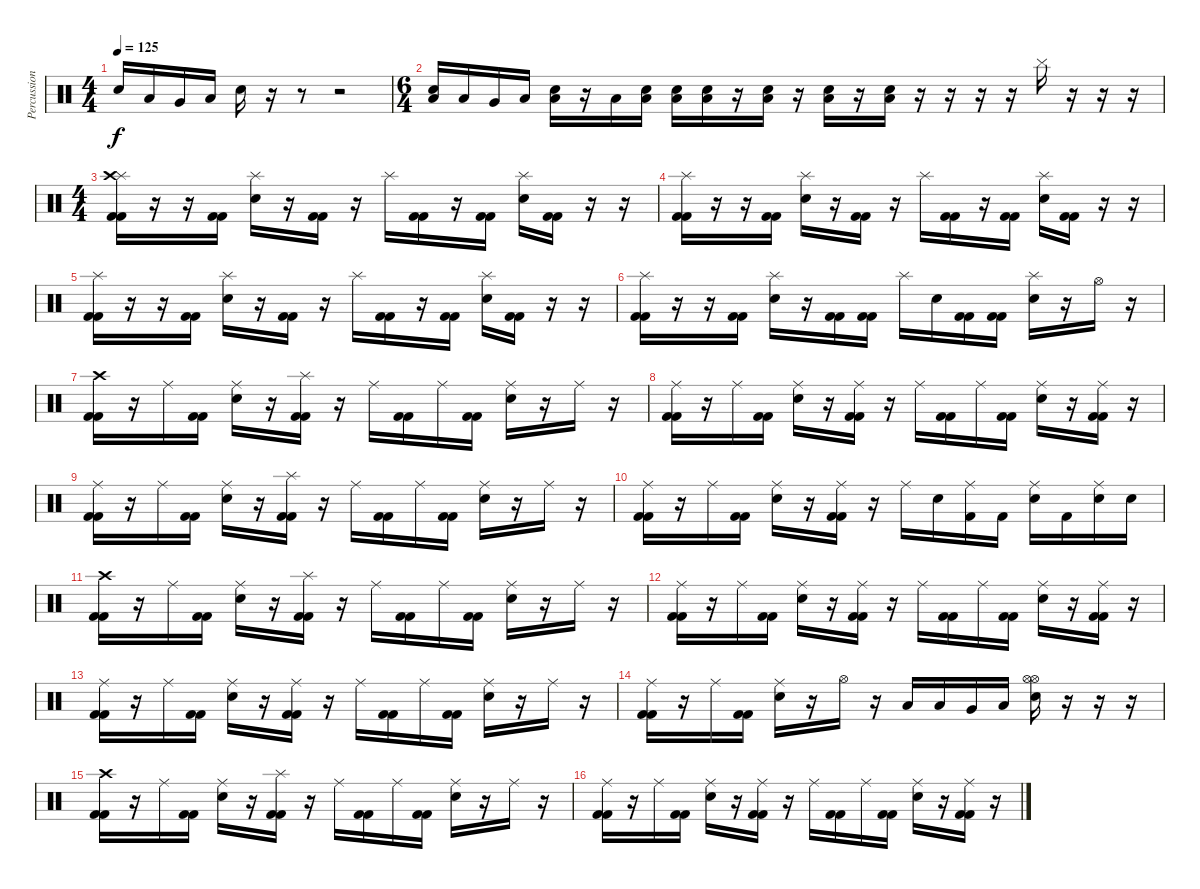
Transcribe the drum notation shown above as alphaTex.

\track ("Percussion" "Percussion") {instrument percussion}
\staff {score}
\articulation defaults
\ts (4 4)
\tempo 125
\clef neutral
\ks c "Electric Snare (hit)".16{dy f} "Low Tom (hit)".16 "Very Low Tom (hit)".16 "Low Floor Tom (hit)".16 "Electric Snare (hit)".16
r.16 r.8 r.2 |
\ts (6 4)
("Electric Snare (hit)" "Low Floor Tom (hit)").16 "Low Tom (hit)".16 "Very Low Tom (hit)".16 "Low Floor Tom (hit)".16 ("Electric Snare (hit)" "Low Floor Tom (hit)").16 r.16 "Low Tom (hit)".16 ("Electric Snare (hit)" "Low Floor Tom (hit)").16 ("Electric Snare (hit)" "Low Floor Tom (hit)").16 ("Electric Snare (hit)" "Low Floor Tom (hit)").16 r.16 ("Electric Snare (hit)" "Low Floor Tom (hit)").16 r.16 ("Electric Snare (hit)" "Low Floor Tom (hit)").16 r.16 ("Electric Snare (hit)" "Low Floor Tom (hit)").16 r.16 r.16 r.16 r.16 "Cymbal (hit)".16 r.16 r.16 r.16 |
\ts (4 4)
("Splash (hit)" "Crash high (hit)" "Kick (hit) 2" "Kick (hit) 2").16 r.16 r.16 ("Kick (hit) 2" "Kick (hit) 2").16 ("Splash (hit)" "Electric Snare (hit)").16 r.16 ("Kick (hit) 2" "Kick (hit) 2").16 r.16 "Splash (hit)".16 ("Kick (hit) 2" "Kick (hit) 2").16 r.16 ("Kick (hit) 2" "Kick (hit) 2").16 ("Splash (hit)" "Electric Snare (hit)").16 ("Kick (hit) 2" "Kick (hit) 2").16 r.16 r.16 |
("Splash (hit)" "Kick (hit) 2" "Kick (hit) 2").16 r.16 r.16 ("Kick (hit) 2" "Kick (hit) 2").16 ("Splash (hit)" "Electric Snare (hit)").16 r.16 ("Kick (hit) 2" "Kick (hit) 2").16 r.16 "Splash (hit)".16 ("Kick (hit) 2" "Kick (hit) 2").16 r.16 ("Kick (hit) 2" "Kick (hit) 2").16 ("Splash (hit)" "Electric Snare (hit)").16 ("Kick (hit) 2" "Kick (hit) 2").16 r.16 r.16 |
("Splash (hit)" "Kick (hit) 2" "Kick (hit) 2").16 r.16 r.16 ("Kick (hit) 2" "Kick (hit) 2").16 ("Splash (hit)" "Electric Snare (hit)").16 r.16 ("Kick (hit) 2" "Kick (hit) 2").16 r.16 "Splash (hit)".16 ("Kick (hit) 2" "Kick (hit) 2").16 r.16 ("Kick (hit) 2" "Kick (hit) 2").16 ("Splash (hit)" "Electric Snare (hit)").16 ("Kick (hit) 2" "Kick (hit) 2").16 r.16 r.16 |
("Splash (hit)" "Kick (hit) 2" "Kick (hit) 2").16 r.16 r.16 ("Kick (hit) 2" "Kick (hit) 2").16 ("Splash (hit)" "Electric Snare (hit)").16 r.16 ("Kick (hit) 2" "Kick (hit) 2").16 ("Kick (hit) 2" "Kick (hit) 2").16 "Splash (hit)".16 "Electric Snare (hit)".16 ("Kick (hit) 2" "Kick (hit) 2").16 ("Kick (hit) 2" "Kick (hit) 2").16 ("Splash (hit)" "Electric Snare (hit)").16 r.16 "Hi-Hat (open)".16 r.16 |
("Crash high (hit)" "Kick (hit) 2" "Kick (hit) 2").16 r.16 "Ride (middle)".16 ("Kick (hit) 2" "Kick (hit) 2").16 ("Ride (middle)" "Electric Snare (hit)").16 r.16 ("Splash (hit)" "Kick (hit) 2" "Kick (hit) 2").16 r.16 "Ride (middle)".16 ("Kick (hit) 2" "Kick (hit) 2").16 "Ride (middle)".16 ("Kick (hit) 2" "Kick (hit) 2").16 ("Ride (middle)" "Electric Snare (hit)").16 r.16 "Ride (middle)".16 r.16 |
("Ride (middle)" "Kick (hit) 2" "Kick (hit) 2").16 r.16 "Ride (middle)".16 ("Kick (hit) 2" "Kick (hit) 2").16 ("Ride (middle)" "Electric Snare (hit)").16 r.16 ("Ride (middle)" "Kick (hit) 2" "Kick (hit) 2").16 r.16 "Ride (middle)".16 ("Kick (hit) 2" "Kick (hit) 2").16 "Ride (middle)".16 ("Kick (hit) 2" "Kick (hit) 2").16 ("Ride (middle)" "Electric Snare (hit)").16 r.16 ("Ride (middle)" "Kick (hit) 2" "Kick (hit) 2").16 r.16 |
("Ride (middle)" "Kick (hit) 2" "Kick (hit) 2").16 r.16 "Ride (middle)".16 ("Kick (hit) 2" "Kick (hit) 2").16 ("Ride (middle)" "Electric Snare (hit)").16 r.16 ("Splash (hit)" "Kick (hit) 2" "Kick (hit) 2").16 r.16 "Ride (middle)".16 ("Kick (hit) 2" "Kick (hit) 2").16 "Ride (middle)".16 ("Kick (hit) 2" "Kick (hit) 2").16 ("Ride (middle)" "Electric Snare (hit)").16 r.16 "Ride (middle)".16 r.16 |
("Ride (middle)" "Kick (hit) 2" "Kick (hit) 2").16 r.16 "Ride (middle)".16 ("Kick (hit) 2" "Kick (hit) 2").16 ("Ride (middle)" "Electric Snare (hit)").16 r.16 ("Ride (middle)" "Kick (hit) 2" "Kick (hit) 2").16 r.16 "Ride (middle)".16 "Electric Snare (hit)".16 ("Ride (middle)" "Kick (hit) 2").16 "Kick (hit) 2".16 ("Ride (middle)" "Electric Snare (hit)").16 "Kick (hit) 2".16 ("Ride (middle)" "Electric Snare (hit)").16 "Electric Snare (hit)".16 |
("Crash high (hit)" "Kick (hit) 2" "Kick (hit) 2").16 r.16 "Ride (middle)".16 ("Kick (hit) 2" "Kick (hit) 2").16 ("Ride (middle)" "Electric Snare (hit)").16 r.16 ("Splash (hit)" "Kick (hit) 2" "Kick (hit) 2").16 r.16 "Ride (middle)".16 ("Kick (hit) 2" "Kick (hit) 2").16 "Ride (middle)".16 ("Kick (hit) 2" "Kick (hit) 2").16 ("Ride (middle)" "Electric Snare (hit)").16 r.16 "Ride (middle)".16 r.16 |
("Ride (middle)" "Kick (hit) 2" "Kick (hit) 2").16 r.16 "Ride (middle)".16 ("Kick (hit) 2" "Kick (hit) 2").16 ("Ride (middle)" "Electric Snare (hit)").16 r.16 ("Ride (middle)" "Kick (hit) 2" "Kick (hit) 2").16 r.16 "Ride (middle)".16 ("Kick (hit) 2" "Kick (hit) 2").16 "Ride (middle)".16 ("Kick (hit) 2" "Kick (hit) 2").16 ("Ride (middle)" "Electric Snare (hit)").16 r.16 ("Ride (middle)" "Kick (hit) 2" "Kick (hit) 2").16 r.16 |
("Ride (middle)" "Kick (hit) 2" "Kick (hit) 2").16 r.16 "Ride (middle)".16 ("Kick (hit) 2" "Kick (hit) 2").16 ("Ride (middle)" "Electric Snare (hit)").16 r.16 ("Ride (middle)" "Kick (hit) 2" "Kick (hit) 2").16 r.16 "Ride (middle)".16 ("Kick (hit) 2" "Kick (hit) 2").16 "Ride (middle)".16 ("Kick (hit) 2" "Kick (hit) 2").16 ("Ride (middle)" "Electric Snare (hit)").16 r.16 "Ride (middle)".16 r.16 |
("Ride (middle)" "Kick (hit) 2" "Kick (hit) 2").16 r.16 "Ride (middle)".16 ("Kick (hit) 2" "Kick (hit) 2").16 ("Ride (middle)" "Electric Snare (hit)").16 r.16 "Hi-Hat (open)".16 r.16 "Low Tom (hit)".16 "Low Tom (hit)".16 "Very Low Tom (hit)".16 "Low Floor Tom (hit)".16 ("Hi-Hat (open)" "Hi-Hat (open)" "Electric Snare (hit)").16 r.16 r.16 r.16 |
("Crash high (hit)" "Kick (hit) 2" "Kick (hit) 2").16 r.16 "Ride (middle)".16 ("Kick (hit) 2" "Kick (hit) 2").16 ("Ride (middle)" "Electric Snare (hit)").16 r.16 ("Splash (hit)" "Kick (hit) 2" "Kick (hit) 2").16 r.16 "Ride (middle)".16 ("Kick (hit) 2" "Kick (hit) 2").16 "Ride (middle)".16 ("Kick (hit) 2" "Kick (hit) 2").16 ("Ride (middle)" "Electric Snare (hit)").16 r.16 "Ride (middle)".16 r.16 |
("Ride (middle)" "Kick (hit) 2" "Kick (hit) 2").16 r.16 "Ride (middle)".16 ("Kick (hit) 2" "Kick (hit) 2").16 ("Ride (middle)" "Electric Snare (hit)").16 r.16 ("Ride (middle)" "Kick (hit) 2" "Kick (hit) 2").16 r.16 "Ride (middle)".16 ("Kick (hit) 2" "Kick (hit) 2").16 "Ride (middle)".16 ("Kick (hit) 2" "Kick (hit) 2").16 ("Ride (middle)" "Electric Snare (hit)").16 r.16 ("Ride (middle)" "Kick (hit) 2" "Kick (hit) 2").16 r.16
